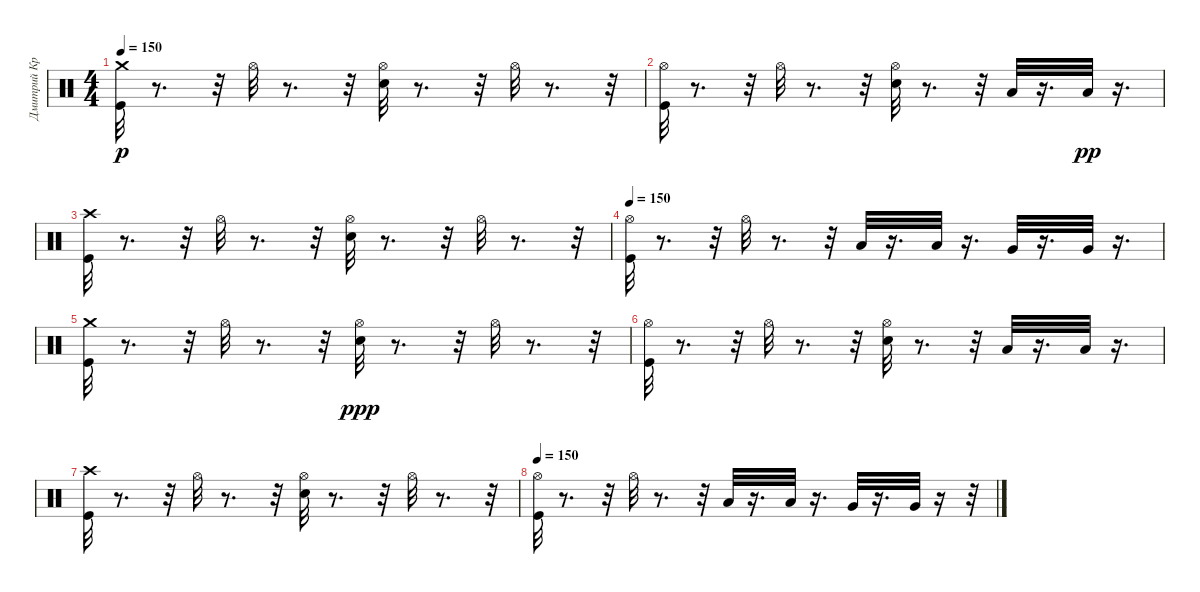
\track ("Дмитрий Кривенков" "Дмитрий Кр") {instrument percussion}
\staff {score}
\articulation defaults
\ts (4 4)
\tempo 150
\clef neutral
\ks c
("Crash medium (hit)" "Kick (hit)").32{dy p} r.8{d} r.32 "Hi-Hat (open)".32 r.8{d} r.32 ("Hi-Hat (open)" "Electric Snare (hit)").32 r.8{d} r.32 "Hi-Hat (open)".32 r.8{d} r.32 |
("Hi-Hat (open)" "Kick (hit)").32 r.8{d} r.32 "Hi-Hat (open)".32 r.8{d} r.32 ("Hi-Hat (open)" "Electric Snare (hit)").32 r.8{d} r.32 "Low Tom (hit)".32 r.16{d} "Low Tom (hit)".32{dy pp} r.16{d} |
("Kick (hit)" "Crash high (hit)").32 r.8{d} r.32 "Hi-Hat (open)".32 r.8{d} r.32 ("Hi-Hat (open)" "Electric Snare (hit)").32 r.8{d} r.32 "Hi-Hat (open)".32 r.8{d} r.32 |
\tempo 150
("Hi-Hat (open)" "Kick (hit)").32 r.8{d} r.32 "Hi-Hat (open)".32 r.8{d} r.32 "Low Tom (hit)".32 r.16{d} "Low Tom (hit)".32 r.16{d} "Very Low Tom (hit)".32 r.16{d} "Very Low Tom (hit)".32 r.16{d} |
("Crash medium (hit)" "Kick (hit)").32 r.8{d} r.32 "Hi-Hat (open)".32 r.8{d} r.32 ("Hi-Hat (open)" "Electric Snare (hit)").32{dy ppp} r.8{d} r.32 "Hi-Hat (open)".32 r.8{d} r.32 |
("Hi-Hat (open)" "Kick (hit)").32 r.8{d} r.32 "Hi-Hat (open)".32 r.8{d} r.32 ("Hi-Hat (open)" "Electric Snare (hit)").32 r.8{d} r.32 "Low Tom (hit)".32 r.16{d} "Low Tom (hit)".32 r.16{d} |
("Kick (hit)" "Crash high (hit)").32 r.8{d} r.32 "Hi-Hat (open)".32 r.8{d} r.32 ("Hi-Hat (open)" "Electric Snare (hit)").32 r.8{d} r.32 "Hi-Hat (open)".32 r.8{d} r.32 |
\tempo 150
("Hi-Hat (open)" "Kick (hit)").32 r.8{d} r.32 "Hi-Hat (open)".32 r.8{d} r.32 "Low Tom (hit)".32 r.16{d} "Low Tom (hit)".32 r.16{d} "Very Low Tom (hit)".32 r.16{d} "Very Low Tom (hit)".32 r.16 r.32
